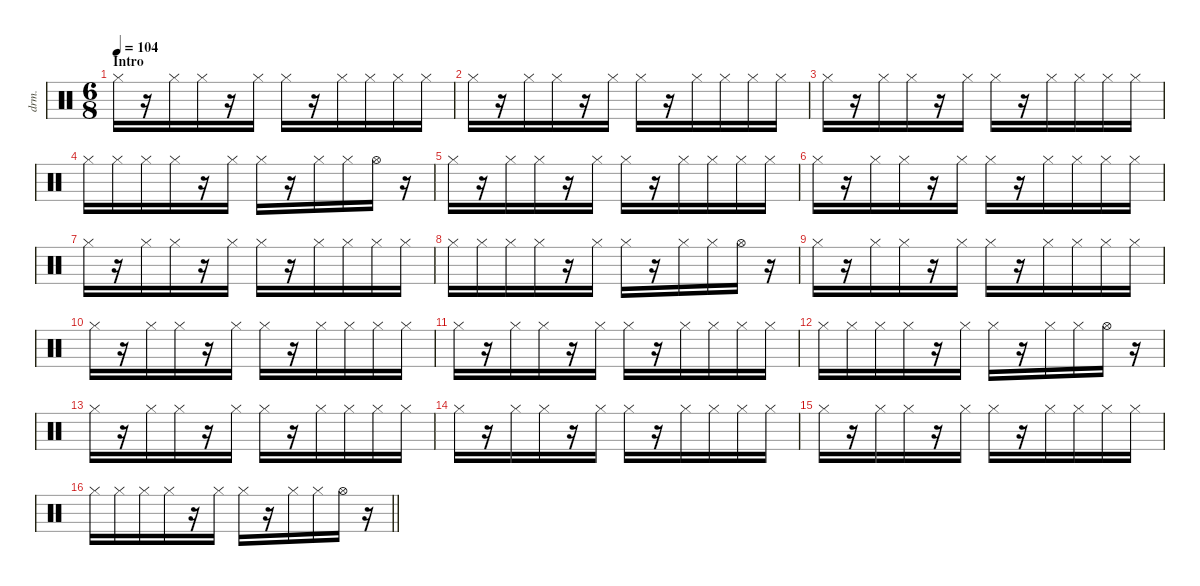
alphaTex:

\defaultSystemsLayout 4
\hideDynamics
\bracketExtendMode nobrackets
\otherSystemsTrackNameOrientation horizontal
\track ("Gene Hoglan" "drm.") {instrument percussion}
\staff {score}
\articulation defaults
\ts (6 8)
\section ("" "Intro")
\tempo 104
\clef neutral
\ks c "Hi-Hat (closed)".16{dy f beam Down}
r.16{beam Down} "Hi-Hat (closed)".16{beam Down} "Hi-Hat (closed)".16{beam Down} r.16{beam Down} "Hi-Hat (closed)".16{beam Down} "Hi-Hat (closed)".16{beam Down} r.16{beam Down} "Hi-Hat (closed)".16{beam Down} "Hi-Hat (closed)".16{beam Down} "Hi-Hat (closed)".16{beam Down} "Hi-Hat (closed)".16{beam Down} |
"Hi-Hat (closed)".16{beam Down} r.16{beam Down} "Hi-Hat (closed)".16{beam Down} "Hi-Hat (closed)".16{beam Down} r.16{beam Down} "Hi-Hat (closed)".16{beam Down} "Hi-Hat (closed)".16{beam Down} r.16{beam Down} "Hi-Hat (closed)".16{beam Down} "Hi-Hat (closed)".16{beam Down} "Hi-Hat (closed)".16{beam Down} "Hi-Hat (closed)".16{beam Down} |
"Hi-Hat (closed)".16{beam Down} r.16{beam Down} "Hi-Hat (closed)".16{beam Down} "Hi-Hat (closed)".16{beam Down} r.16{beam Down} "Hi-Hat (closed)".16{beam Down} "Hi-Hat (closed)".16{beam Down} r.16{beam Down} "Hi-Hat (closed)".16{beam Down} "Hi-Hat (closed)".16{beam Down} "Hi-Hat (closed)".16{beam Down} "Hi-Hat (closed)".16{beam Down} |
"Hi-Hat (closed)".16{beam Down} "Hi-Hat (closed)".16{beam Down} "Hi-Hat (closed)".16{beam Down} "Hi-Hat (closed)".16{beam Down} r.16{beam Down} "Hi-Hat (closed)".16{beam Down} "Hi-Hat (closed)".16{beam Down} r.16{beam Down} "Hi-Hat (closed)".16{beam Down} "Hi-Hat (closed)".16{beam Down} "Hi-Hat (open)".16{beam Down} r.16{beam Down} |
"Hi-Hat (closed)".16{beam Down} r.16{beam Down} "Hi-Hat (closed)".16{beam Down} "Hi-Hat (closed)".16{beam Down} r.16{beam Down} "Hi-Hat (closed)".16{beam Down} "Hi-Hat (closed)".16{beam Down} r.16{beam Down} "Hi-Hat (closed)".16{beam Down} "Hi-Hat (closed)".16{beam Down} "Hi-Hat (closed)".16{beam Down} "Hi-Hat (closed)".16{beam Down} |
"Hi-Hat (closed)".16{beam Down} r.16{beam Down} "Hi-Hat (closed)".16{beam Down} "Hi-Hat (closed)".16{beam Down} r.16{beam Down} "Hi-Hat (closed)".16{beam Down} "Hi-Hat (closed)".16{beam Down} r.16{beam Down} "Hi-Hat (closed)".16{beam Down} "Hi-Hat (closed)".16{beam Down} "Hi-Hat (closed)".16{beam Down} "Hi-Hat (closed)".16{beam Down} |
"Hi-Hat (closed)".16{beam Down} r.16{beam Down} "Hi-Hat (closed)".16{beam Down} "Hi-Hat (closed)".16{beam Down} r.16{beam Down} "Hi-Hat (closed)".16{beam Down} "Hi-Hat (closed)".16{beam Down} r.16{beam Down} "Hi-Hat (closed)".16{beam Down} "Hi-Hat (closed)".16{beam Down} "Hi-Hat (closed)".16{beam Down} "Hi-Hat (closed)".16{beam Down} |
"Hi-Hat (closed)".16{beam Down} "Hi-Hat (closed)".16{beam Down} "Hi-Hat (closed)".16{beam Down} "Hi-Hat (closed)".16{beam Down} r.16{beam Down} "Hi-Hat (closed)".16{beam Down} "Hi-Hat (closed)".16{beam Down} r.16{beam Down} "Hi-Hat (closed)".16{beam Down} "Hi-Hat (closed)".16{beam Down} "Hi-Hat (open)".16{beam Down} r.16{beam Down} |
"Hi-Hat (closed)".16{beam Down} r.16{beam Down} "Hi-Hat (closed)".16{beam Down} "Hi-Hat (closed)".16{beam Down} r.16{beam Down} "Hi-Hat (closed)".16{beam Down} "Hi-Hat (closed)".16{beam Down} r.16{beam Down} "Hi-Hat (closed)".16{beam Down} "Hi-Hat (closed)".16{beam Down} "Hi-Hat (closed)".16{beam Down} "Hi-Hat (closed)".16{beam Down} |
"Hi-Hat (closed)".16{beam Down} r.16{beam Down} "Hi-Hat (closed)".16{beam Down} "Hi-Hat (closed)".16{beam Down} r.16{beam Down} "Hi-Hat (closed)".16{beam Down} "Hi-Hat (closed)".16{beam Down} r.16{beam Down} "Hi-Hat (closed)".16{beam Down} "Hi-Hat (closed)".16{beam Down} "Hi-Hat (closed)".16{beam Down} "Hi-Hat (closed)".16{beam Down} |
"Hi-Hat (closed)".16{beam Down} r.16{beam Down} "Hi-Hat (closed)".16{beam Down} "Hi-Hat (closed)".16{beam Down} r.16{beam Down} "Hi-Hat (closed)".16{beam Down} "Hi-Hat (closed)".16{beam Down} r.16{beam Down} "Hi-Hat (closed)".16{beam Down} "Hi-Hat (closed)".16{beam Down} "Hi-Hat (closed)".16{beam Down} "Hi-Hat (closed)".16{beam Down} |
"Hi-Hat (closed)".16{beam Down} "Hi-Hat (closed)".16{beam Down} "Hi-Hat (closed)".16{beam Down} "Hi-Hat (closed)".16{beam Down} r.16{beam Down} "Hi-Hat (closed)".16{beam Down} "Hi-Hat (closed)".16{beam Down} r.16{beam Down} "Hi-Hat (closed)".16{beam Down} "Hi-Hat (closed)".16{beam Down} "Hi-Hat (open)".16{beam Down} r.16{beam Down} |
"Hi-Hat (closed)".16{beam Down} r.16{beam Down} "Hi-Hat (closed)".16{beam Down} "Hi-Hat (closed)".16{beam Down} r.16{beam Down} "Hi-Hat (closed)".16{beam Down} "Hi-Hat (closed)".16{beam Down} r.16{beam Down} "Hi-Hat (closed)".16{beam Down} "Hi-Hat (closed)".16{beam Down} "Hi-Hat (closed)".16{beam Down} "Hi-Hat (closed)".16{beam Down} |
"Hi-Hat (closed)".16{beam Down} r.16{beam Down} "Hi-Hat (closed)".16{beam Down} "Hi-Hat (closed)".16{beam Down} r.16{beam Down} "Hi-Hat (closed)".16{beam Down} "Hi-Hat (closed)".16{beam Down} r.16{beam Down} "Hi-Hat (closed)".16{beam Down} "Hi-Hat (closed)".16{beam Down} "Hi-Hat (closed)".16{beam Down} "Hi-Hat (closed)".16{beam Down} |
"Hi-Hat (closed)".16{beam Down} r.16{beam Down} "Hi-Hat (closed)".16{beam Down} "Hi-Hat (closed)".16{beam Down} r.16{beam Down} "Hi-Hat (closed)".16{beam Down} "Hi-Hat (closed)".16{beam Down} r.16{beam Down} "Hi-Hat (closed)".16{beam Down} "Hi-Hat (closed)".16{beam Down} "Hi-Hat (closed)".16{beam Down} "Hi-Hat (closed)".16{beam Down} |
\barLineRight lightlight "Hi-Hat (closed)".16{beam Down} "Hi-Hat (closed)".16{beam Down} "Hi-Hat (closed)".16{beam Down} "Hi-Hat (closed)".16{beam Down}
r.16{beam Down} "Hi-Hat (closed)".16{beam Down} "Hi-Hat (closed)".16{beam Down} r.16{beam Down} "Hi-Hat (closed)".16{beam Down} "Hi-Hat (closed)".16{beam Down} "Hi-Hat (open)".16{beam Down} r.16{beam Down}
